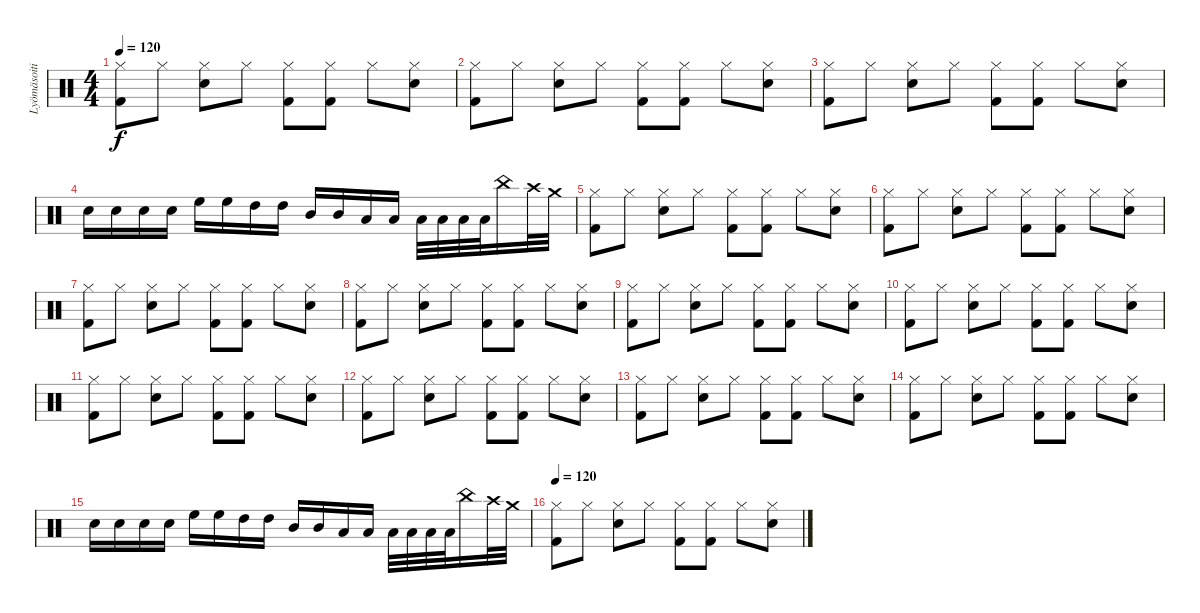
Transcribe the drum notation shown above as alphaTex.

\track ("Lyömäsoitin" "Lyömäsoiti") {instrument percussion}
\staff {score}
\articulation defaults
\ts (4 4)
\tempo 120
\clef neutral
\ks c
("Hi-Hat (closed)" "Kick (hit) 2").8{dy f} "Hi-Hat (closed)".8 ("Hi-Hat (closed)" "Snare (hit) 2").8 "Hi-Hat (closed)".8 ("Hi-Hat (closed)" "Kick (hit) 2").8 ("Hi-Hat (closed)" "Kick (hit) 2").8 "Hi-Hat (closed)".8 ("Hi-Hat (closed)" "Snare (hit) 2").8 |
("Hi-Hat (closed)" "Kick (hit) 2").8 "Hi-Hat (closed)".8 ("Hi-Hat (closed)" "Snare (hit) 2").8 "Hi-Hat (closed)".8 ("Hi-Hat (closed)" "Kick (hit) 2").8 ("Hi-Hat (closed)" "Kick (hit) 2").8 "Hi-Hat (closed)".8 ("Hi-Hat (closed)" "Snare (hit) 2").8 |
("Hi-Hat (closed)" "Kick (hit) 2").8 "Hi-Hat (closed)".8 ("Hi-Hat (closed)" "Snare (hit) 2").8 "Hi-Hat (closed)".8 ("Hi-Hat (closed)" "Kick (hit) 2").8 ("Hi-Hat (closed)" "Kick (hit) 2").8 "Hi-Hat (closed)".8 ("Hi-Hat (closed)" "Snare (hit) 2").8 |
"Snare (hit) 2".16 "Snare (hit) 2".16 "Snare (hit) 2".16 "Snare (hit) 2".16 "High Floor Tom (hit)".16 "High Floor Tom (hit)".16 "High Tom (hit)".16 "High Tom (hit)".16 "Mid Tom (hit)".16 "Mid Tom (hit)".16 "Low Tom (hit)".16 "Low Tom (hit)".16 "Low Tom (hit)".32 "Low Tom (hit)".32 "Low Tom (hit)".32 "Low Tom (hit)".32 "China (hit)".16 "Crash high (hit)".32 "Crash medium (hit)".32 |
("Hi-Hat (closed)" "Kick (hit) 2").8 "Hi-Hat (closed)".8 ("Hi-Hat (closed)" "Snare (hit) 2").8 "Hi-Hat (closed)".8 ("Hi-Hat (closed)" "Kick (hit) 2").8 ("Hi-Hat (closed)" "Kick (hit) 2").8 "Hi-Hat (closed)".8 ("Hi-Hat (closed)" "Snare (hit) 2").8 |
("Hi-Hat (closed)" "Kick (hit) 2").8 "Hi-Hat (closed)".8 ("Hi-Hat (closed)" "Snare (hit) 2").8 "Hi-Hat (closed)".8 ("Hi-Hat (closed)" "Kick (hit) 2").8 ("Hi-Hat (closed)" "Kick (hit) 2").8 "Hi-Hat (closed)".8 ("Hi-Hat (closed)" "Snare (hit) 2").8 |
("Hi-Hat (closed)" "Kick (hit) 2").8 "Hi-Hat (closed)".8 ("Hi-Hat (closed)" "Snare (hit) 2").8 "Hi-Hat (closed)".8 ("Hi-Hat (closed)" "Kick (hit) 2").8 ("Hi-Hat (closed)" "Kick (hit) 2").8 "Hi-Hat (closed)".8 ("Hi-Hat (closed)" "Snare (hit) 2").8 |
("Hi-Hat (closed)" "Kick (hit) 2").8 "Hi-Hat (closed)".8 ("Hi-Hat (closed)" "Snare (hit) 2").8 "Hi-Hat (closed)".8 ("Hi-Hat (closed)" "Kick (hit) 2").8 ("Hi-Hat (closed)" "Kick (hit) 2").8 "Hi-Hat (closed)".8 ("Hi-Hat (closed)" "Snare (hit) 2").8 |
("Hi-Hat (closed)" "Kick (hit) 2").8 "Hi-Hat (closed)".8 ("Hi-Hat (closed)" "Snare (hit) 2").8 "Hi-Hat (closed)".8 ("Hi-Hat (closed)" "Kick (hit) 2").8 ("Hi-Hat (closed)" "Kick (hit) 2").8 "Hi-Hat (closed)".8 ("Hi-Hat (closed)" "Snare (hit) 2").8 |
("Hi-Hat (closed)" "Kick (hit) 2").8 "Hi-Hat (closed)".8 ("Hi-Hat (closed)" "Snare (hit) 2").8 "Hi-Hat (closed)".8 ("Hi-Hat (closed)" "Kick (hit) 2").8 ("Hi-Hat (closed)" "Kick (hit) 2").8 "Hi-Hat (closed)".8 ("Hi-Hat (closed)" "Snare (hit) 2").8 |
("Hi-Hat (closed)" "Kick (hit) 2").8 "Hi-Hat (closed)".8 ("Hi-Hat (closed)" "Snare (hit) 2").8 "Hi-Hat (closed)".8 ("Hi-Hat (closed)" "Kick (hit) 2").8 ("Hi-Hat (closed)" "Kick (hit) 2").8 "Hi-Hat (closed)".8 ("Hi-Hat (closed)" "Snare (hit) 2").8 |
("Hi-Hat (closed)" "Kick (hit) 2").8 "Hi-Hat (closed)".8 ("Hi-Hat (closed)" "Snare (hit) 2").8 "Hi-Hat (closed)".8 ("Hi-Hat (closed)" "Kick (hit) 2").8 ("Hi-Hat (closed)" "Kick (hit) 2").8 "Hi-Hat (closed)".8 ("Hi-Hat (closed)" "Snare (hit) 2").8 |
("Hi-Hat (closed)" "Kick (hit) 2").8 "Hi-Hat (closed)".8 ("Hi-Hat (closed)" "Snare (hit) 2").8 "Hi-Hat (closed)".8 ("Hi-Hat (closed)" "Kick (hit) 2").8 ("Hi-Hat (closed)" "Kick (hit) 2").8 "Hi-Hat (closed)".8 ("Hi-Hat (closed)" "Snare (hit) 2").8 |
("Hi-Hat (closed)" "Kick (hit) 2").8 "Hi-Hat (closed)".8 ("Hi-Hat (closed)" "Snare (hit) 2").8 "Hi-Hat (closed)".8 ("Hi-Hat (closed)" "Kick (hit) 2").8 ("Hi-Hat (closed)" "Kick (hit) 2").8 "Hi-Hat (closed)".8 ("Hi-Hat (closed)" "Snare (hit) 2").8 |
"Snare (hit) 2".16 "Snare (hit) 2".16 "Snare (hit) 2".16 "Snare (hit) 2".16 "High Floor Tom (hit)".16 "High Floor Tom (hit)".16 "High Tom (hit)".16 "High Tom (hit)".16 "Mid Tom (hit)".16 "Mid Tom (hit)".16 "Low Tom (hit)".16 "Low Tom (hit)".16 "Low Tom (hit)".32 "Low Tom (hit)".32 "Low Tom (hit)".32 "Low Tom (hit)".32 "China (hit)".16 "Crash high (hit)".32 "Crash medium (hit)".32 |
\tempo 120
("Hi-Hat (closed)" "Kick (hit) 2").8 "Hi-Hat (closed)".8 ("Hi-Hat (closed)" "Snare (hit) 2").8 "Hi-Hat (closed)".8 ("Hi-Hat (closed)" "Kick (hit) 2").8 ("Hi-Hat (closed)" "Kick (hit) 2").8 "Hi-Hat (closed)".8 ("Hi-Hat (closed)" "Snare (hit) 2").8
